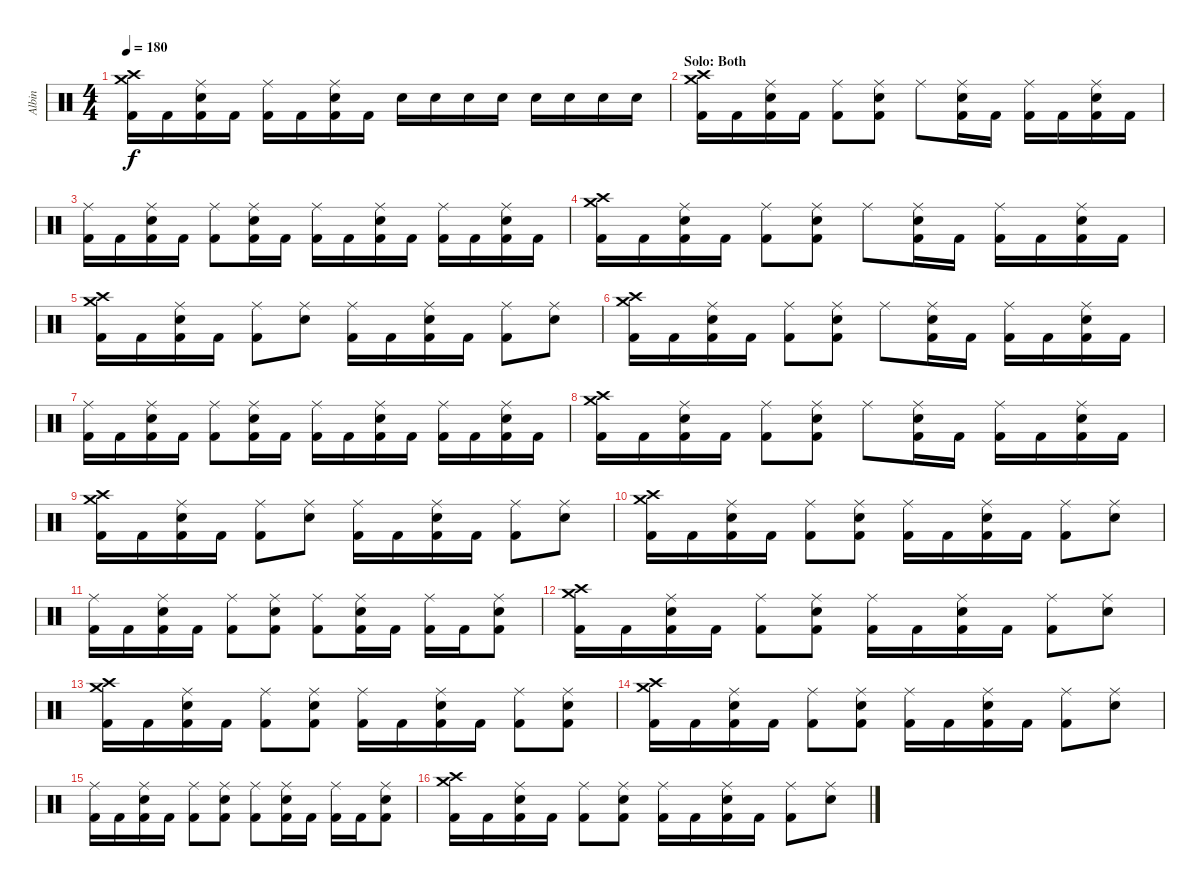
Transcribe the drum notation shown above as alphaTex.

\track ("Albin" "Albin") {instrument percussion}
\staff {score}
\articulation defaults
\ts (4 4)
\tempo 180
\clef neutral
\ks c
("Kick (hit) 2" "Crash high (hit)" "Crash medium (hit)").16{dy f} "Kick (hit) 2".16 ("Kick (hit) 2" "Electric Snare (hit)" "Ride (middle)").16 "Kick (hit) 2".16 ("Kick (hit) 2" "Ride (middle)").16 "Kick (hit) 2".16 ("Kick (hit) 2" "Electric Snare (hit)" "Ride (middle)").16 "Kick (hit) 2".16 "Electric Snare (hit)".16 "Electric Snare (hit)".16 "Electric Snare (hit)".16 "Electric Snare (hit)".16 "Electric Snare (hit)".16 "Electric Snare (hit)".16 "Electric Snare (hit)".16 "Electric Snare (hit)".16 |
\section ("" "Solo: Both")
("Kick (hit) 2" "Crash high (hit)" "Crash medium (hit)").16 "Kick (hit) 2".16 ("Kick (hit) 2" "Electric Snare (hit)" "Ride (middle)").16 "Kick (hit) 2".16 ("Kick (hit) 2" "Ride (middle)").8 ("Kick (hit) 2" "Electric Snare (hit)" "Ride (middle)").8 "Ride (middle)".8 ("Kick (hit) 2" "Electric Snare (hit)" "Ride (middle)").16 "Kick (hit) 2".16 ("Kick (hit) 2" "Ride (middle)").16 "Kick (hit) 2".16 ("Kick (hit) 2" "Electric Snare (hit)" "Ride (middle)").16 "Kick (hit) 2".16 |
("Kick (hit) 2" "Ride (middle)").16 "Kick (hit) 2".16 ("Kick (hit) 2" "Electric Snare (hit)" "Ride (middle)").16 "Kick (hit) 2".16 ("Kick (hit) 2" "Ride (middle)").8 ("Kick (hit) 2" "Electric Snare (hit)" "Ride (middle)").16 "Kick (hit) 2".16 ("Kick (hit) 2" "Ride (middle)").16 "Kick (hit) 2".16 ("Kick (hit) 2" "Electric Snare (hit)" "Ride (middle)").16 "Kick (hit) 2".16 ("Kick (hit) 2" "Ride (middle)").16 "Kick (hit) 2".16 ("Kick (hit) 2" "Electric Snare (hit)" "Ride (middle)").16 "Kick (hit) 2".16 |
("Kick (hit) 2" "Crash high (hit)" "Crash medium (hit)").16 "Kick (hit) 2".16 ("Kick (hit) 2" "Electric Snare (hit)" "Ride (middle)").16 "Kick (hit) 2".16 ("Kick (hit) 2" "Ride (middle)").8 ("Kick (hit) 2" "Electric Snare (hit)" "Ride (middle)").8 "Ride (middle)".8 ("Kick (hit) 2" "Electric Snare (hit)" "Ride (middle)").16 "Kick (hit) 2".16 ("Kick (hit) 2" "Ride (middle)").16 "Kick (hit) 2".16 ("Kick (hit) 2" "Electric Snare (hit)" "Ride (middle)").16 "Kick (hit) 2".16 |
("Kick (hit) 2" "Crash high (hit)" "Crash medium (hit)").16 "Kick (hit) 2".16 ("Kick (hit) 2" "Electric Snare (hit)" "Ride (middle)").16 "Kick (hit) 2".16 ("Kick (hit) 2" "Ride (middle)").8 ("Electric Snare (hit)" "Ride (middle)").8 ("Kick (hit) 2" "Ride (middle)").16 "Kick (hit) 2".16 ("Kick (hit) 2" "Electric Snare (hit)" "Ride (middle)").16 "Kick (hit) 2".16 ("Kick (hit) 2" "Ride (middle)").8 ("Electric Snare (hit)" "Ride (middle)").8 |
("Kick (hit) 2" "Crash high (hit)" "Crash medium (hit)").16 "Kick (hit) 2".16 ("Kick (hit) 2" "Electric Snare (hit)" "Ride (middle)").16 "Kick (hit) 2".16 ("Kick (hit) 2" "Ride (middle)").8 ("Kick (hit) 2" "Electric Snare (hit)" "Ride (middle)").8 "Ride (middle)".8 ("Kick (hit) 2" "Electric Snare (hit)" "Ride (middle)").16 "Kick (hit) 2".16 ("Kick (hit) 2" "Ride (middle)").16 "Kick (hit) 2".16 ("Kick (hit) 2" "Electric Snare (hit)" "Ride (middle)").16 "Kick (hit) 2".16 |
("Kick (hit) 2" "Ride (middle)").16 "Kick (hit) 2".16 ("Kick (hit) 2" "Electric Snare (hit)" "Ride (middle)").16 "Kick (hit) 2".16 ("Kick (hit) 2" "Ride (middle)").8 ("Kick (hit) 2" "Electric Snare (hit)" "Ride (middle)").16 "Kick (hit) 2".16 ("Kick (hit) 2" "Ride (middle)").16 "Kick (hit) 2".16 ("Kick (hit) 2" "Electric Snare (hit)" "Ride (middle)").16 "Kick (hit) 2".16 ("Kick (hit) 2" "Ride (middle)").16 "Kick (hit) 2".16 ("Kick (hit) 2" "Electric Snare (hit)" "Ride (middle)").16 "Kick (hit) 2".16 |
("Kick (hit) 2" "Crash high (hit)" "Crash medium (hit)").16 "Kick (hit) 2".16 ("Kick (hit) 2" "Electric Snare (hit)" "Ride (middle)").16 "Kick (hit) 2".16 ("Kick (hit) 2" "Ride (middle)").8 ("Kick (hit) 2" "Electric Snare (hit)" "Ride (middle)").8 "Ride (middle)".8 ("Kick (hit) 2" "Electric Snare (hit)" "Ride (middle)").16 "Kick (hit) 2".16 ("Kick (hit) 2" "Ride (middle)").16 "Kick (hit) 2".16 ("Kick (hit) 2" "Electric Snare (hit)" "Ride (middle)").16 "Kick (hit) 2".16 |
("Kick (hit) 2" "Crash high (hit)" "Crash medium (hit)").16 "Kick (hit) 2".16 ("Kick (hit) 2" "Electric Snare (hit)" "Ride (middle)").16 "Kick (hit) 2".16 ("Kick (hit) 2" "Ride (middle)").8 ("Electric Snare (hit)" "Ride (middle)").8 ("Kick (hit) 2" "Ride (middle)").16 "Kick (hit) 2".16 ("Kick (hit) 2" "Electric Snare (hit)" "Ride (middle)").16 "Kick (hit) 2".16 ("Kick (hit) 2" "Ride (middle)").8 ("Electric Snare (hit)" "Ride (middle)").8 |
("Kick (hit) 2" "Crash high (hit)" "Crash medium (hit)").16 "Kick (hit) 2".16 ("Kick (hit) 2" "Electric Snare (hit)" "Ride (middle)").16 "Kick (hit) 2".16 ("Kick (hit) 2" "Ride (middle)").8 ("Kick (hit) 2" "Electric Snare (hit)" "Ride (middle)").8 ("Kick (hit) 2" "Ride (middle)").16 "Kick (hit) 2".16 ("Kick (hit) 2" "Electric Snare (hit)" "Ride (middle)").16 "Kick (hit) 2".16 ("Kick (hit) 2" "Ride (middle)").8 ("Electric Snare (hit)" "Ride (middle)").8 |
("Kick (hit) 2" "Ride (middle)").16 "Kick (hit) 2".16 ("Kick (hit) 2" "Electric Snare (hit)" "Ride (middle)").16 "Kick (hit) 2".16 ("Kick (hit) 2" "Ride (middle)").8 ("Kick (hit) 2" "Electric Snare (hit)" "Ride (middle)").8 ("Kick (hit) 2" "Ride (middle)").8 ("Kick (hit) 2" "Electric Snare (hit)" "Ride (middle)").16 "Kick (hit) 2".16 ("Kick (hit) 2" "Ride (middle)").16 "Kick (hit) 2".16 ("Kick (hit) 2" "Electric Snare (hit)" "Ride (middle)").8 |
("Kick (hit) 2" "Crash high (hit)" "Crash medium (hit)").16 "Kick (hit) 2".16 ("Kick (hit) 2" "Electric Snare (hit)" "Ride (middle)").16 "Kick (hit) 2".16 ("Kick (hit) 2" "Ride (middle)").8 ("Kick (hit) 2" "Electric Snare (hit)" "Ride (middle)").8 ("Kick (hit) 2" "Ride (middle)").16 "Kick (hit) 2".16 ("Kick (hit) 2" "Electric Snare (hit)" "Ride (middle)").16 "Kick (hit) 2".16 ("Kick (hit) 2" "Ride (middle)").8 ("Electric Snare (hit)" "Ride (middle)").8 |
("Kick (hit) 2" "Crash high (hit)" "Crash medium (hit)").16 "Kick (hit) 2".16 ("Kick (hit) 2" "Electric Snare (hit)" "Ride (middle)").16 "Kick (hit) 2".16 ("Kick (hit) 2" "Ride (middle)").8 ("Kick (hit) 2" "Electric Snare (hit)" "Ride (middle)").8 ("Kick (hit) 2" "Ride (middle)").16 "Kick (hit) 2".16 ("Kick (hit) 2" "Electric Snare (hit)" "Ride (middle)").16 "Kick (hit) 2".16 ("Kick (hit) 2" "Ride (middle)").8 ("Kick (hit) 2" "Electric Snare (hit)" "Ride (middle)").8 |
("Kick (hit) 2" "Crash high (hit)" "Crash medium (hit)").16 "Kick (hit) 2".16 ("Kick (hit) 2" "Electric Snare (hit)" "Ride (middle)").16 "Kick (hit) 2".16 ("Kick (hit) 2" "Ride (middle)").8 ("Kick (hit) 2" "Electric Snare (hit)" "Ride (middle)").8 ("Kick (hit) 2" "Ride (middle)").16 "Kick (hit) 2".16 ("Kick (hit) 2" "Electric Snare (hit)" "Ride (middle)").16 "Kick (hit) 2".16 ("Kick (hit) 2" "Ride (middle)").8 ("Electric Snare (hit)" "Ride (middle)").8 |
("Kick (hit) 2" "Ride (middle)").16 "Kick (hit) 2".16 ("Kick (hit) 2" "Electric Snare (hit)" "Ride (middle)").16 "Kick (hit) 2".16 ("Kick (hit) 2" "Ride (middle)").8 ("Kick (hit) 2" "Electric Snare (hit)" "Ride (middle)").8 ("Kick (hit) 2" "Ride (middle)").8 ("Kick (hit) 2" "Electric Snare (hit)" "Ride (middle)").16 "Kick (hit) 2".16 ("Kick (hit) 2" "Ride (middle)").16 "Kick (hit) 2".16 ("Kick (hit) 2" "Electric Snare (hit)" "Ride (middle)").8 |
("Kick (hit) 2" "Crash high (hit)" "Crash medium (hit)").16 "Kick (hit) 2".16 ("Kick (hit) 2" "Electric Snare (hit)" "Ride (middle)").16 "Kick (hit) 2".16 ("Kick (hit) 2" "Ride (middle)").8 ("Kick (hit) 2" "Electric Snare (hit)" "Ride (middle)").8 ("Kick (hit) 2" "Ride (middle)").16 "Kick (hit) 2".16 ("Kick (hit) 2" "Electric Snare (hit)" "Ride (middle)").16 "Kick (hit) 2".16 ("Kick (hit) 2" "Ride (middle)").8 ("Electric Snare (hit)" "Ride (middle)").8
